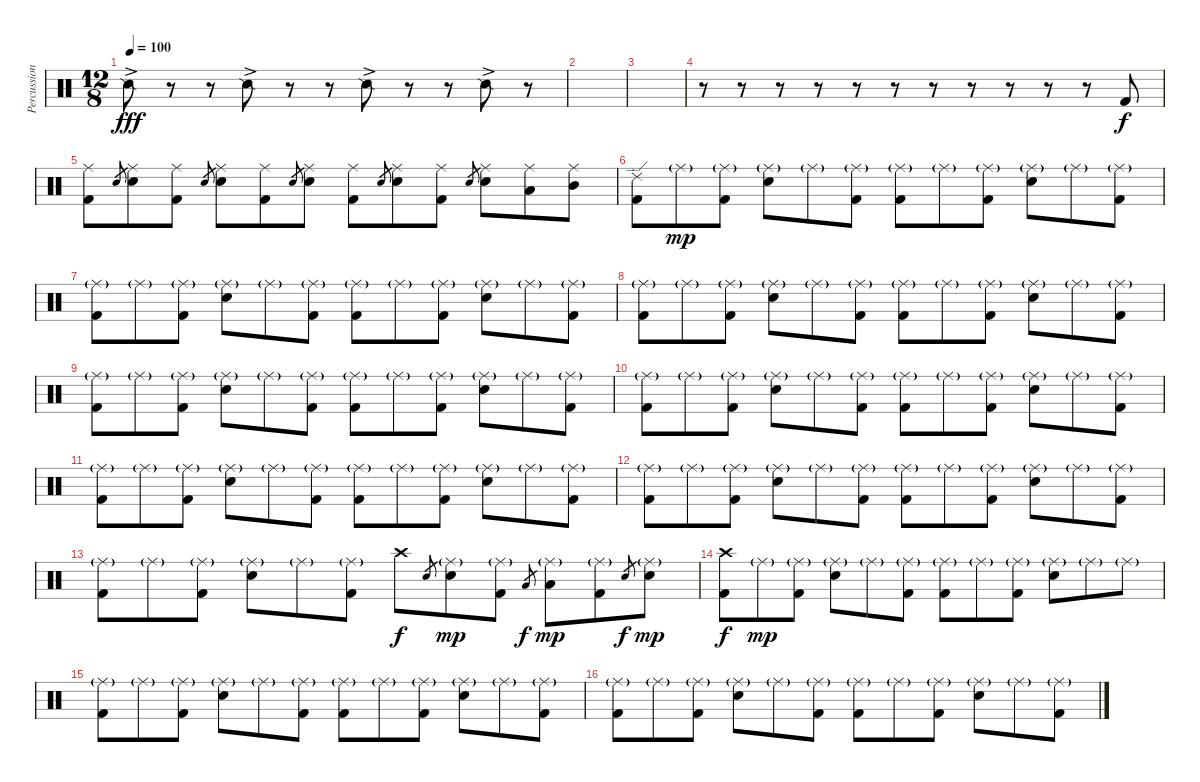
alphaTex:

\track ("Percussion" "Percussion") {instrument percussion}
\staff {score}
\articulation defaults
\ts (12 8)
\tempo 100
\clef neutral
\ks c "Snare (side stick) 2"{ac}.8{dy fff}
r.8 r.8 "Snare (side stick) 2"{ac}.8 r.8 r.8 "Snare (side stick) 2"{ac}.8 r.8 r.8 "Snare (side stick) 2"{ac}.8 r.8 |
|
|
r.8 r.8 r.8 r.8 r.8 r.8 r.8 r.8 r.8 r.8 r.8 "Kick (hit) 2".8{dy f} |
("Ride (middle)" "Kick (hit) 2").8 "Electric Snare (hit)".8{gr} ("Ride (middle)" "Electric Snare (hit)").8 ("Ride (middle)" "Kick (hit) 2").8 "Electric Snare (hit)".8{gr} ("Ride (middle)" "Electric Snare (hit)").8 ("Ride (middle)" "Kick (hit) 2").8 "Electric Snare (hit)".8{gr} ("Ride (middle)" "Electric Snare (hit)").8 ("Ride (middle)" "Kick (hit) 2").8 "Electric Snare (hit)".8{gr} ("Ride (middle)" "Electric Snare (hit)").8 ("Ride (middle)" "Kick (hit) 2").8 "Electric Snare (hit)".8{gr} ("Ride (middle)" "Electric Snare (hit)").8 ("Ride (middle)" "Low Tom (hit)").8 ("Ride (middle)" "Mid Tom (hit)").8 |
("Ride (edge) 2" "Kick (hit) 2").8 "Ride (middle)"{g}.8{dy mp} ("Ride (middle)"{g} "Kick (hit) 2").8 ("Ride (middle)"{g} "Electric Snare (hit)").8 "Ride (middle)"{g}.8 ("Ride (middle)"{g} "Kick (hit) 2").8 ("Ride (middle)"{g} "Kick (hit) 2").8 "Ride (middle)"{g}.8 ("Ride (middle)"{g} "Kick (hit) 2").8 ("Ride (middle)"{g} "Electric Snare (hit)").8 "Ride (middle)"{g}.8 ("Ride (middle)"{g} "Kick (hit) 2").8 |
("Ride (middle)"{g} "Kick (hit) 2").8 "Ride (middle)"{g}.8 ("Ride (middle)"{g} "Kick (hit) 2").8 ("Ride (middle)"{g} "Electric Snare (hit)").8 "Ride (middle)"{g}.8 ("Ride (middle)"{g} "Kick (hit) 2").8 ("Ride (middle)"{g} "Kick (hit) 2").8 "Ride (middle)"{g}.8 ("Ride (middle)"{g} "Kick (hit) 2").8 ("Ride (middle)"{g} "Electric Snare (hit)").8 "Ride (middle)"{g}.8 ("Ride (middle)"{g} "Kick (hit) 2").8 |
("Ride (middle)"{g} "Kick (hit) 2").8 "Ride (middle)"{g}.8 ("Ride (middle)"{g} "Kick (hit) 2").8 ("Ride (middle)"{g} "Electric Snare (hit)").8 "Ride (middle)"{g}.8 ("Ride (middle)"{g} "Kick (hit) 2").8 ("Ride (middle)"{g} "Kick (hit) 2").8 "Ride (middle)"{g}.8 ("Ride (middle)"{g} "Kick (hit) 2").8 ("Ride (middle)"{g} "Electric Snare (hit)").8 "Ride (middle)"{g}.8 ("Ride (middle)"{g} "Kick (hit) 2").8 |
("Ride (middle)"{g} "Kick (hit) 2").8 "Ride (middle)"{g}.8 ("Ride (middle)"{g} "Kick (hit) 2").8 ("Ride (middle)"{g} "Electric Snare (hit)").8 "Ride (middle)"{g}.8 ("Ride (middle)"{g} "Kick (hit) 2").8 ("Ride (middle)"{g} "Kick (hit) 2").8 "Ride (middle)"{g}.8 ("Ride (middle)"{g} "Kick (hit) 2").8 ("Ride (middle)"{g} "Electric Snare (hit)").8 "Ride (middle)"{g}.8 ("Ride (middle)"{g} "Kick (hit) 2").8 |
("Ride (middle)"{g} "Kick (hit) 2").8 "Ride (middle)"{g}.8 ("Ride (middle)"{g} "Kick (hit) 2").8 ("Ride (middle)"{g} "Electric Snare (hit)").8 "Ride (middle)"{g}.8 ("Ride (middle)"{g} "Kick (hit) 2").8 ("Ride (middle)"{g} "Kick (hit) 2").8 "Ride (middle)"{g}.8 ("Ride (middle)"{g} "Kick (hit) 2").8 ("Ride (middle)"{g} "Electric Snare (hit)").8 "Ride (middle)"{g}.8 ("Ride (middle)"{g} "Kick (hit) 2").8 |
("Ride (middle)"{g} "Kick (hit) 2").8 "Ride (middle)"{g}.8 ("Ride (middle)"{g} "Kick (hit) 2").8 ("Ride (middle)"{g} "Electric Snare (hit)").8 "Ride (middle)"{g}.8 ("Ride (middle)"{g} "Kick (hit) 2").8 ("Ride (middle)"{g} "Kick (hit) 2").8 "Ride (middle)"{g}.8 ("Ride (middle)"{g} "Kick (hit) 2").8 ("Ride (middle)"{g} "Electric Snare (hit)").8 "Ride (middle)"{g}.8 ("Ride (middle)"{g} "Kick (hit) 2").8 |
("Ride (middle)"{g} "Kick (hit) 2").8 "Ride (middle)"{g}.8 ("Ride (middle)"{g} "Kick (hit) 2").8 ("Ride (middle)"{g} "Electric Snare (hit)").8 "Ride (middle)"{g}.8 ("Ride (middle)"{g} "Kick (hit) 2").8 ("Ride (middle)"{g} "Kick (hit) 2").8 "Ride (middle)"{g}.8 ("Ride (middle)"{g} "Kick (hit) 2").8 ("Ride (middle)"{g} "Electric Snare (hit)").8 "Ride (middle)"{g}.8 ("Ride (middle)"{g} "Kick (hit) 2").8 |
("Ride (middle)"{g} "Kick (hit) 2").8 "Ride (middle)"{g}.8 ("Ride (middle)"{g} "Kick (hit) 2").8 ("Ride (middle)"{g} "Electric Snare (hit)").8 "Ride (middle)"{g}.8 ("Ride (middle)"{g} "Kick (hit) 2").8 "Crash high (hit)".8{dy f} "Electric Snare (hit)".8{gr} ("Ride (middle)"{g} "Electric Snare (hit)").8{dy mp} ("Ride (middle)"{g} "Kick (hit) 2").8 "Low Tom (hit)".8{gr dy f} ("Ride (middle)"{g} "Low Tom (hit)").8{dy mp} ("Ride (middle)"{g} "Kick (hit) 2").8 "Electric Snare (hit)".8{gr dy f} ("Ride (middle)"{g} "Electric Snare (hit)").8{dy mp} |
("Crash high (hit)" "Kick (hit) 2").8{dy f} "Ride (middle)"{g}.8{dy mp} ("Ride (middle)"{g} "Kick (hit) 2").8 ("Ride (middle)"{g} "Electric Snare (hit)").8 "Ride (middle)"{g}.8 ("Ride (middle)"{g} "Kick (hit) 2").8 ("Ride (middle)"{g} "Kick (hit) 2").8 "Ride (middle)"{g}.8 ("Ride (middle)"{g} "Kick (hit) 2").8 ("Ride (middle)"{g} "Electric Snare (hit)").8 "Ride (middle)"{g}.8 "Ride (middle)"{g}.8 |
("Ride (middle)"{g} "Kick (hit) 2").8 "Ride (middle)"{g}.8 ("Ride (middle)"{g} "Kick (hit) 2").8 ("Ride (middle)"{g} "Electric Snare (hit)").8 "Ride (middle)"{g}.8 ("Ride (middle)"{g} "Kick (hit) 2").8 ("Ride (middle)"{g} "Kick (hit) 2").8 "Ride (middle)"{g}.8 ("Ride (middle)"{g} "Kick (hit) 2").8 ("Ride (middle)"{g} "Electric Snare (hit)").8 "Ride (middle)"{g}.8 ("Ride (middle)"{g} "Kick (hit) 2").8 |
("Ride (middle)"{g} "Kick (hit) 2").8 "Ride (middle)"{g}.8 ("Ride (middle)"{g} "Kick (hit) 2").8 ("Ride (middle)"{g} "Electric Snare (hit)").8 "Ride (middle)"{g}.8 ("Ride (middle)"{g} "Kick (hit) 2").8 ("Ride (middle)"{g} "Kick (hit) 2").8 "Ride (middle)"{g}.8 ("Ride (middle)"{g} "Kick (hit) 2").8 ("Ride (middle)"{g} "Electric Snare (hit)").8 "Ride (middle)"{g}.8 ("Ride (middle)"{g} "Kick (hit) 2").8
